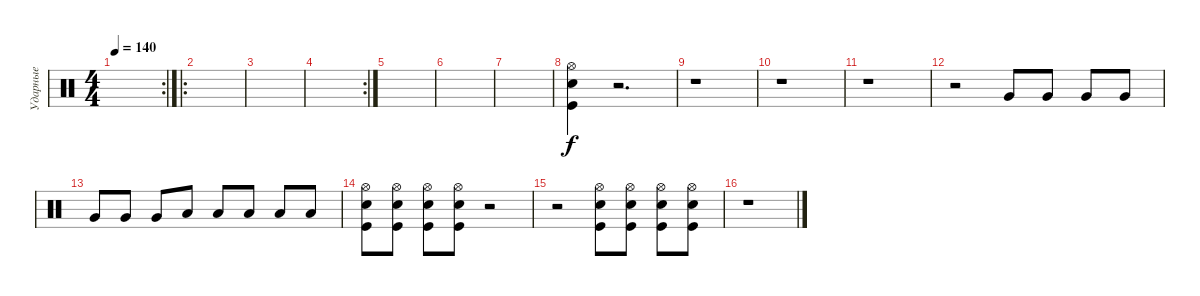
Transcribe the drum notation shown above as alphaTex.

\track ("Ударные" "Ударные") {instrument percussion}
\staff {score}
\articulation defaults
\rc 2
\ts (4 4)
\tempo 140
\clef neutral
\ks c
|
\ro
|
|
\rc 2
|
|
|
|
("Kick (hit)" "Snare (hit) 2" "Hi-Hat (open)").4 r.2{d} |
r.1 |
r.1 |
r.1 |
r.2 "Very Low Tom (hit)".8 "Very Low Tom (hit)".8 "Very Low Tom (hit)".8 "Very Low Tom (hit)".8 |
"Very Low Tom (hit)".8 "Very Low Tom (hit)".8 "Very Low Tom (hit)".8 "Low Tom (hit)".8 "Low Tom (hit)".8 "Low Tom (hit)".8 "Low Tom (hit)".8 "Low Tom (hit)".8 |
("Kick (hit)" "Snare (hit) 2" "Hi-Hat (open)").8 ("Kick (hit)" "Snare (hit) 2" "Hi-Hat (open)").8 ("Kick (hit)" "Snare (hit) 2" "Hi-Hat (open)").8 ("Kick (hit)" "Snare (hit) 2" "Hi-Hat (open)").8 r.2 |
r.2 ("Kick (hit)" "Snare (hit) 2" "Hi-Hat (open)").8 ("Kick (hit)" "Snare (hit) 2" "Hi-Hat (open)").8 ("Kick (hit)" "Snare (hit) 2" "Hi-Hat (open)").8 ("Kick (hit)" "Snare (hit) 2" "Hi-Hat (open)").8 |
r.1
